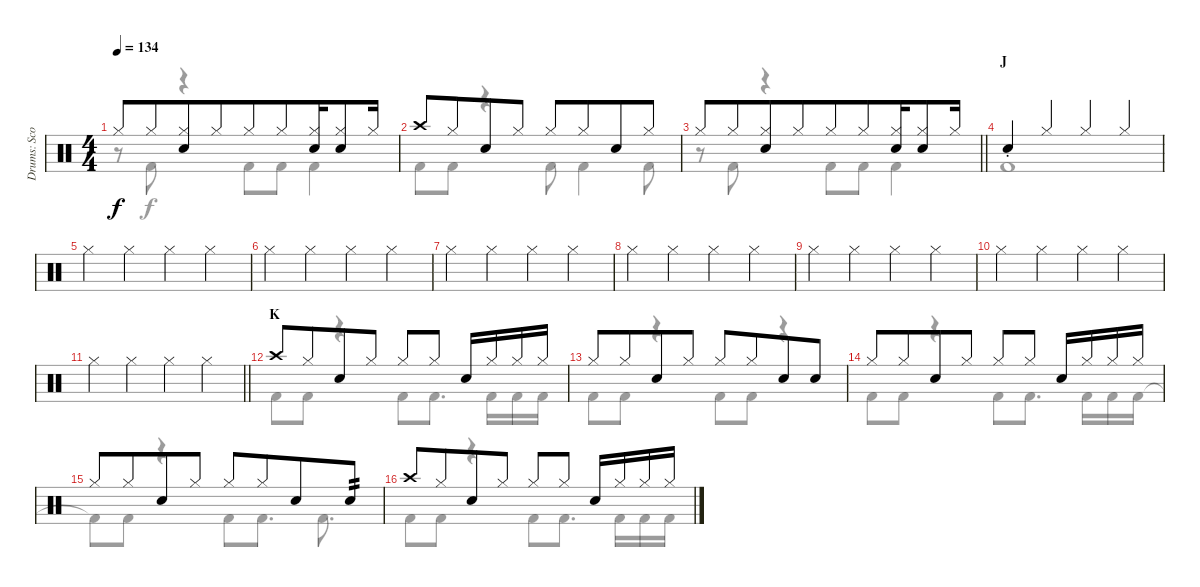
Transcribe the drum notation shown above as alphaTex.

\track ("Drums: Scott" "Drums: Sco") {instrument percussion}
\staff {score}
\articulation defaults
\voice
\ts (4 4)
\tempo 134
\clef neutral
\ks c "Hi-Hat (closed)".8{dy f} "Hi-Hat (closed)".8{beam merge}
("Hi-Hat (closed)" "Snare (hit) 2").8 "Hi-Hat (closed)".8{beam merge} "Hi-Hat (closed)".8 "Hi-Hat (closed)".8{beam merge} ("Hi-Hat (closed)" "Snare (hit) 2").16 ("Hi-Hat (closed)" "Snare (hit) 2").8 "Hi-Hat (closed)".16 |
"Crash high (hit)".8 "Hi-Hat (closed)".8{beam merge} "Snare (hit) 2".8 "Hi-Hat (closed)".8 "Hi-Hat (closed)".8 "Hi-Hat (closed)".8{beam merge} "Snare (hit) 2".8 "Hi-Hat (closed)".8 |
\barLineRight lightlight "Hi-Hat (closed)".8 "Hi-Hat (closed)".8{beam merge}
("Hi-Hat (closed)" "Snare (hit) 2").8 "Hi-Hat (closed)".8{beam merge} "Hi-Hat (closed)".8 "Hi-Hat (closed)".8{beam merge} ("Hi-Hat (closed)" "Snare (hit) 2").16 ("Hi-Hat (closed)" "Snare (hit) 2").8 "Hi-Hat (closed)".16 |
\section ("" "J")
"Snare (hit) 2"{st}.4 "Hi-Hat (closed)".4 "Hi-Hat (closed)".4 "Hi-Hat (closed)".4 |
"Hi-Hat (closed)".4 "Hi-Hat (closed)".4 "Hi-Hat (closed)".4 "Hi-Hat (closed)".4 |
"Hi-Hat (closed)".4 "Hi-Hat (closed)".4 "Hi-Hat (closed)".4 "Hi-Hat (closed)".4 |
"Hi-Hat (closed)".4 "Hi-Hat (closed)".4 "Hi-Hat (closed)".4 "Hi-Hat (closed)".4 |
"Hi-Hat (closed)".4 "Hi-Hat (closed)".4 "Hi-Hat (closed)".4 "Hi-Hat (closed)".4 |
"Hi-Hat (closed)".4 "Hi-Hat (closed)".4 "Hi-Hat (closed)".4 "Hi-Hat (closed)".4 |
"Hi-Hat (closed)".4 "Hi-Hat (closed)".4 "Hi-Hat (closed)".4 "Hi-Hat (closed)".4 |
\barLineRight lightlight "Hi-Hat (closed)".4 "Hi-Hat (closed)".4 "Hi-Hat (closed)".4 "Hi-Hat (closed)".4
|
\section ("" "K")
"Crash high (hit)".8 "Hi-Hat (closed)".8{beam merge} "Snare (hit) 2".8 "Hi-Hat (closed)".8 "Hi-Hat (closed)".8 "Hi-Hat (closed)".8 "Snare (hit) 2".16 "Hi-Hat (closed)".16 "Hi-Hat (closed)".16 "Hi-Hat (closed)".16 |
"Hi-Hat (closed)".8 "Hi-Hat (closed)".8{beam merge} "Snare (hit) 2".8 "Hi-Hat (closed)".8 "Hi-Hat (closed)".8 "Hi-Hat (closed)".8{beam merge} "Snare (hit) 2".8 "Snare (hit) 2".8 |
"Hi-Hat (closed)".8 "Hi-Hat (closed)".8{beam merge} "Snare (hit) 2".8 "Hi-Hat (closed)".8 "Hi-Hat (closed)".8 "Hi-Hat (closed)".8 "Snare (hit) 2".16 "Hi-Hat (closed)".16 "Hi-Hat (closed)".16 "Hi-Hat (closed)".16 |
"Hi-Hat (closed)".8 "Hi-Hat (closed)".8{beam merge} "Snare (hit) 2".8 "Hi-Hat (closed)".8 "Hi-Hat (closed)".8 "Hi-Hat (closed)".8{beam merge} "Snare (hit) 2".8 "Snare (hit) 2".8{tp 2} |
"Crash high (hit)".8 "Hi-Hat (closed)".8{beam merge} "Snare (hit) 2".8 "Hi-Hat (closed)".8 "Hi-Hat (closed)".8 "Hi-Hat (closed)".8 "Snare (hit) 2".16 "Hi-Hat (closed)".16 "Hi-Hat (closed)".16 "Hi-Hat (closed)".16
\voice
\clef neutral
\ottava regular
\simile none
\ks c
r.8{dy f} "Kick (hit) 2".8 r.4 "Kick (hit) 2".8 "Kick (hit) 2".8 "Kick (hit) 2".4 |
"Kick (hit) 2".8 "Kick (hit) 2".8 r.4 "Kick (hit) 2".8 "Kick (hit) 2".4 "Kick (hit) 2".8 |
\barLineRight lightlight
r.8 "Kick (hit) 2".8 r.4 "Kick (hit) 2".8 "Kick (hit) 2".8 "Kick (hit) 2".4 |
"Kick (hit) 2".1 |
|
|
|
|
|
|
\barLineRight lightlight
|
"Kick (hit) 2".8 "Kick (hit) 2".8 r.4 "Kick (hit) 2".8 "Kick (hit) 2".8{d} "Kick (hit) 2".16 "Kick (hit) 2".16 "Kick (hit) 2".16 |
"Kick (hit) 2".8 "Kick (hit) 2".8 r.4 "Kick (hit) 2".8 "Kick (hit) 2".8 r.4 |
"Kick (hit) 2".8 "Kick (hit) 2".8 r.4 "Kick (hit) 2".8 "Kick (hit) 2".8{d} "Kick (hit) 2".16 "Kick (hit) 2".16 "Kick (hit) 2".16 |
"Kick (hit) 2"{t}.8 "Kick (hit) 2".8 r.4 "Kick (hit) 2".8 "Kick (hit) 2".8{d} "Kick (hit) 2".8{d} |
"Kick (hit) 2".8 "Kick (hit) 2".8 r.4 "Kick (hit) 2".8 "Kick (hit) 2".8{d} "Kick (hit) 2".16 "Kick (hit) 2".16 "Kick (hit) 2".16
